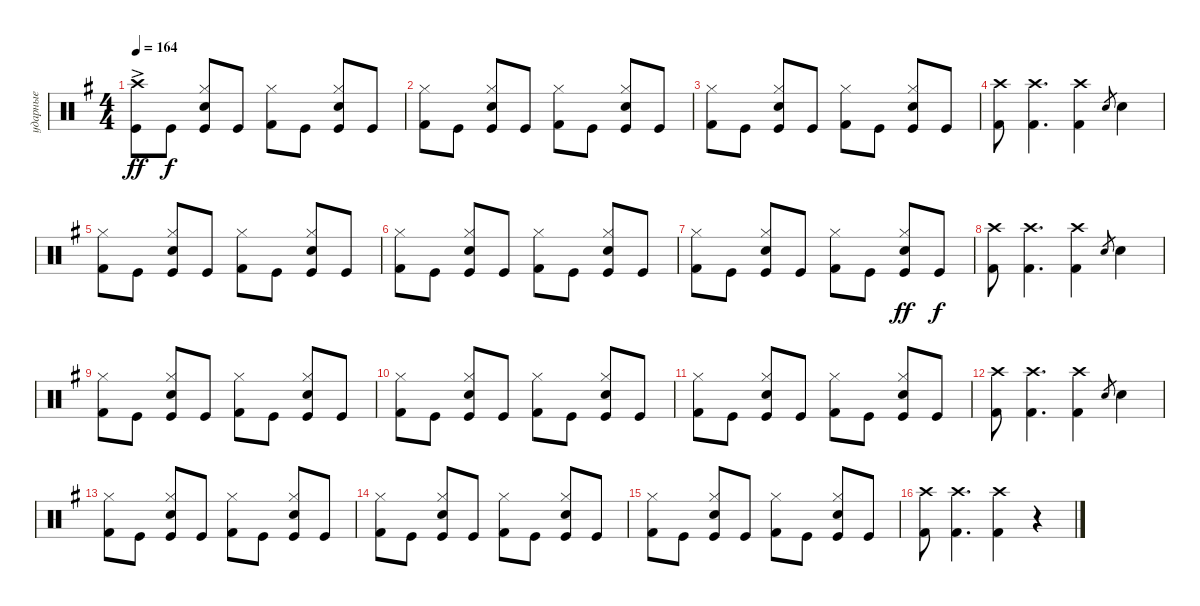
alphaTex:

\track ("ударные" "ударные") {instrument percussion}
\staff {score}
\articulation defaults
\ts (4 4)
\tempo 164
\clef neutral
\ks eminor
("Kick (hit)" "Crash high (hit)"{ac}).8{dy ff} "Kick (hit)".8{dy f} ("Hi-Hat (closed)" "Kick (hit)" "Snare (hit) 2").8 "Kick (hit)".8 ("Hi-Hat (closed)" "Kick (hit) 2").8 "Kick (hit)".8 ("Hi-Hat (closed)" "Kick (hit)" "Snare (hit) 2").8 "Kick (hit)".8 |
("Hi-Hat (closed)" "Kick (hit) 2").8 "Kick (hit)".8 ("Snare (hit) 2" "Hi-Hat (closed)" "Kick (hit)").8 "Kick (hit)".8 ("Hi-Hat (closed)" "Kick (hit) 2").8 "Kick (hit)".8 ("Hi-Hat (closed)" "Kick (hit)" "Snare (hit) 2").8 "Kick (hit)".8 |
("Hi-Hat (closed)" "Kick (hit) 2").8 "Kick (hit)".8 ("Snare (hit) 2" "Hi-Hat (closed)" "Kick (hit)").8 "Kick (hit)".8 ("Hi-Hat (closed)" "Kick (hit) 2").8 "Kick (hit)".8 ("Hi-Hat (closed)" "Kick (hit)" "Snare (hit) 2").8 "Kick (hit)".8 |
("Crash high (hit)" "Kick (hit) 2").8 ("Crash high (hit)" "Kick (hit) 2").4{d} ("Crash high (hit)" "Kick (hit) 2").4 "Snare (hit) 2".8{gr} "Snare (hit) 2".4 |
("Hi-Hat (closed)" "Kick (hit) 2").8 "Kick (hit)".8 ("Snare (hit) 2" "Hi-Hat (closed)" "Kick (hit)").8 "Kick (hit)".8 ("Hi-Hat (closed)" "Kick (hit) 2").8 "Kick (hit)".8 ("Hi-Hat (closed)" "Kick (hit)" "Snare (hit) 2").8 "Kick (hit)".8 |
("Hi-Hat (closed)" "Kick (hit) 2").8 "Kick (hit)".8 ("Hi-Hat (closed)" "Kick (hit)" "Snare (hit) 2").8 "Kick (hit)".8 ("Hi-Hat (closed)" "Kick (hit) 2").8 "Kick (hit)".8 ("Kick (hit)" "Snare (hit) 2" "Hi-Hat (closed)").8 "Kick (hit)".8 |
("Hi-Hat (closed)" "Kick (hit) 2").8 "Kick (hit)".8 ("Hi-Hat (closed)" "Kick (hit)" "Snare (hit) 2").8 "Kick (hit)".8 ("Hi-Hat (closed)" "Kick (hit) 2").8 "Kick (hit)".8 ("Snare (hit) 2" "Kick (hit)" "Hi-Hat (closed)").8{dy ff} "Kick (hit)".8{dy f} |
("Crash high (hit)" "Kick (hit) 2").8 ("Crash high (hit)" "Kick (hit) 2").4{d} ("Crash high (hit)" "Kick (hit) 2").4 "Snare (hit) 2".8{gr} "Snare (hit) 2".4 |
("Hi-Hat (closed)" "Kick (hit) 2").8 "Kick (hit)".8 ("Snare (hit) 2" "Hi-Hat (closed)" "Kick (hit)").8 "Kick (hit)".8 ("Hi-Hat (closed)" "Kick (hit) 2").8 "Kick (hit)".8 ("Hi-Hat (closed)" "Kick (hit)" "Snare (hit) 2").8 "Kick (hit)".8 |
("Hi-Hat (closed)" "Kick (hit) 2").8 "Kick (hit)".8 ("Hi-Hat (closed)" "Kick (hit)" "Snare (hit) 2").8 "Kick (hit)".8 ("Hi-Hat (closed)" "Kick (hit) 2").8 "Kick (hit)".8 ("Kick (hit)" "Snare (hit) 2" "Hi-Hat (closed)").8 "Kick (hit)".8 |
("Hi-Hat (closed)" "Kick (hit) 2").8 "Kick (hit)".8 ("Snare (hit) 2" "Hi-Hat (closed)" "Kick (hit)").8 "Kick (hit)".8 ("Hi-Hat (closed)" "Kick (hit) 2").8 "Kick (hit)".8 ("Hi-Hat (closed)" "Kick (hit)" "Snare (hit) 2").8 "Kick (hit)".8 |
("Crash high (hit)" "Kick (hit) 2").8 ("Crash high (hit)" "Kick (hit) 2").4{d} ("Crash high (hit)" "Kick (hit) 2").4 "Snare (hit) 2".8{gr} "Snare (hit) 2".4 |
("Hi-Hat (closed)" "Kick (hit) 2").8 "Kick (hit)".8 ("Snare (hit) 2" "Hi-Hat (closed)" "Kick (hit)").8 "Kick (hit)".8 ("Hi-Hat (closed)" "Kick (hit) 2").8 "Kick (hit)".8 ("Hi-Hat (closed)" "Kick (hit)" "Snare (hit) 2").8 "Kick (hit)".8 |
("Hi-Hat (closed)" "Kick (hit) 2").8 "Kick (hit)".8 ("Hi-Hat (closed)" "Kick (hit)" "Snare (hit) 2").8 "Kick (hit)".8 ("Hi-Hat (closed)" "Kick (hit) 2").8 "Kick (hit)".8 ("Kick (hit)" "Snare (hit) 2" "Hi-Hat (closed)").8 "Kick (hit)".8 |
("Hi-Hat (closed)" "Kick (hit) 2").8 "Kick (hit)".8 ("Snare (hit) 2" "Hi-Hat (closed)" "Kick (hit)").8 "Kick (hit)".8 ("Hi-Hat (closed)" "Kick (hit) 2").8 "Kick (hit)".8 ("Hi-Hat (closed)" "Kick (hit)" "Snare (hit) 2").8 "Kick (hit)".8 |
("Crash high (hit)" "Kick (hit) 2").8 ("Crash high (hit)" "Kick (hit) 2").4{d} ("Crash high (hit)" "Kick (hit) 2").4 r.4
